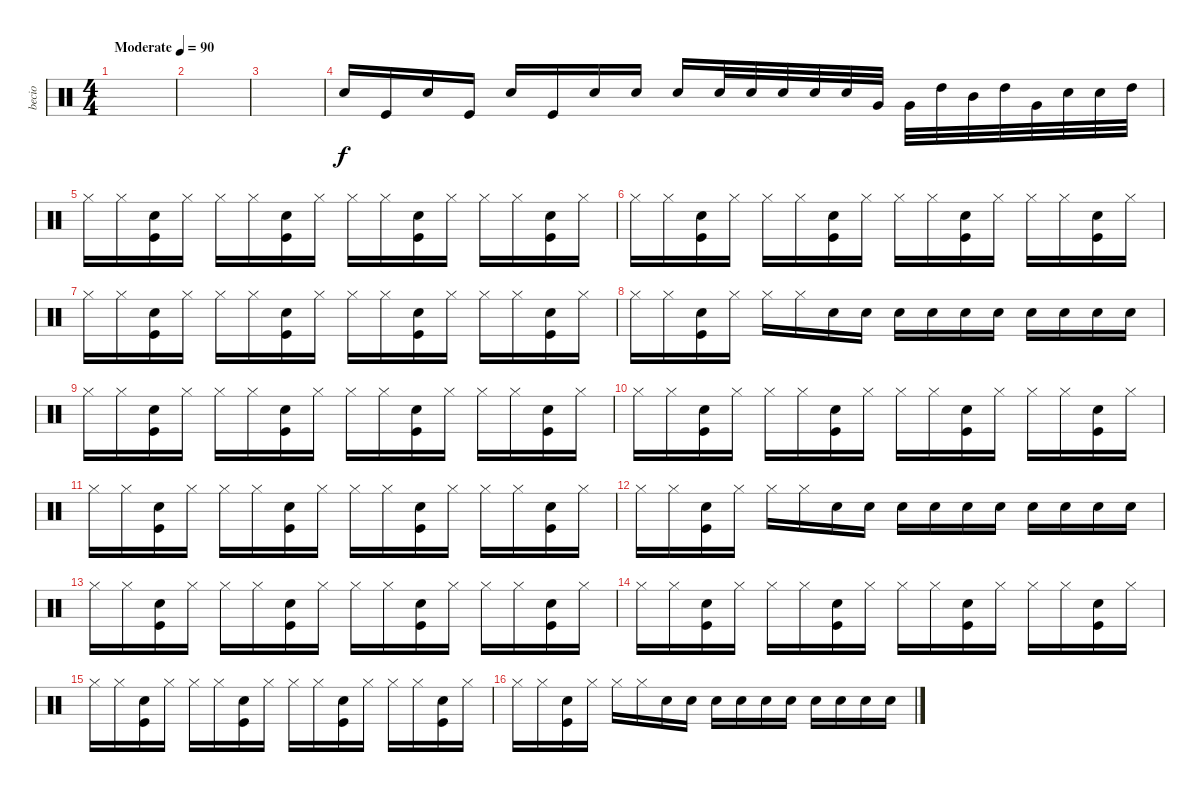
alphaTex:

\track ("becio" "becio") {instrument percussion}
\staff {score}
\articulation defaults
\ts (4 4)
\tempo (90 "Moderate")
\clef neutral
\ks c
|
|
|
"Electric Snare (hit)".16 "Kick (hit)".16 "Electric Snare (hit)".16 "Kick (hit)".16 "Electric Snare (hit)".16 "Kick (hit)".16 "Electric Snare (hit)".16 "Electric Snare (hit)".16 "Electric Snare (hit)".16 "Electric Snare (hit)".32 "Electric Snare (hit)".32 "Electric Snare (hit)".32 "Electric Snare (hit)".32 "Electric Snare (hit)".32 "Very Low Tom (hit)".32 "Very Low Tom (hit)".32 "High Tom (hit)".32 "Mid Tom (hit)".32 "High Tom (hit)".32 "Very Low Tom (hit)".32 "Electric Snare (hit)".32 "Electric Snare (hit)".32 "High Tom (hit)".32 |
"Hi-Hat (closed)".16 "Hi-Hat (closed)".16 ("Electric Snare (hit)" "Kick (hit)").16 "Hi-Hat (closed)".16 "Hi-Hat (closed)".16 "Hi-Hat (closed)".16 ("Electric Snare (hit)" "Kick (hit)").16 "Hi-Hat (closed)".16 "Hi-Hat (closed)".16 "Hi-Hat (closed)".16 ("Electric Snare (hit)" "Kick (hit)").16 "Hi-Hat (closed)".16 "Hi-Hat (closed)".16 "Hi-Hat (closed)".16 ("Electric Snare (hit)" "Kick (hit)").16 "Hi-Hat (closed)".16 |
"Hi-Hat (closed)".16 "Hi-Hat (closed)".16 ("Electric Snare (hit)" "Kick (hit)").16 "Hi-Hat (closed)".16 "Hi-Hat (closed)".16 "Hi-Hat (closed)".16 ("Electric Snare (hit)" "Kick (hit)").16 "Hi-Hat (closed)".16 "Hi-Hat (closed)".16 "Hi-Hat (closed)".16 ("Electric Snare (hit)" "Kick (hit)").16 "Hi-Hat (closed)".16 "Hi-Hat (closed)".16 "Hi-Hat (closed)".16 ("Electric Snare (hit)" "Kick (hit)").16 "Hi-Hat (closed)".16 |
"Hi-Hat (closed)".16 "Hi-Hat (closed)".16 ("Electric Snare (hit)" "Kick (hit)").16 "Hi-Hat (closed)".16 "Hi-Hat (closed)".16 "Hi-Hat (closed)".16 ("Electric Snare (hit)" "Kick (hit)").16 "Hi-Hat (closed)".16 "Hi-Hat (closed)".16 "Hi-Hat (closed)".16 ("Electric Snare (hit)" "Kick (hit)").16 "Hi-Hat (closed)".16 "Hi-Hat (closed)".16 "Hi-Hat (closed)".16 ("Electric Snare (hit)" "Kick (hit)").16 "Hi-Hat (closed)".16 |
"Hi-Hat (closed)".16 "Hi-Hat (closed)".16 ("Electric Snare (hit)" "Kick (hit)").16 "Hi-Hat (closed)".16 "Hi-Hat (closed)".16 "Hi-Hat (closed)".16 "Electric Snare (hit)".16 "Electric Snare (hit)".16 "Electric Snare (hit)".16 "Electric Snare (hit)".16 "Electric Snare (hit)".16 "Electric Snare (hit)".16 "Electric Snare (hit)".16 "Electric Snare (hit)".16 "Electric Snare (hit)".16 "Electric Snare (hit)".16 |
"Hi-Hat (closed)".16 "Hi-Hat (closed)".16 ("Electric Snare (hit)" "Kick (hit)").16 "Hi-Hat (closed)".16 "Hi-Hat (closed)".16 "Hi-Hat (closed)".16 ("Electric Snare (hit)" "Kick (hit)").16 "Hi-Hat (closed)".16 "Hi-Hat (closed)".16 "Hi-Hat (closed)".16 ("Electric Snare (hit)" "Kick (hit)").16 "Hi-Hat (closed)".16 "Hi-Hat (closed)".16 "Hi-Hat (closed)".16 ("Electric Snare (hit)" "Kick (hit)").16 "Hi-Hat (closed)".16 |
"Hi-Hat (closed)".16 "Hi-Hat (closed)".16 ("Electric Snare (hit)" "Kick (hit)").16 "Hi-Hat (closed)".16 "Hi-Hat (closed)".16 "Hi-Hat (closed)".16 ("Electric Snare (hit)" "Kick (hit)").16 "Hi-Hat (closed)".16 "Hi-Hat (closed)".16 "Hi-Hat (closed)".16 ("Electric Snare (hit)" "Kick (hit)").16 "Hi-Hat (closed)".16 "Hi-Hat (closed)".16 "Hi-Hat (closed)".16 ("Electric Snare (hit)" "Kick (hit)").16 "Hi-Hat (closed)".16 |
"Hi-Hat (closed)".16 "Hi-Hat (closed)".16 ("Electric Snare (hit)" "Kick (hit)").16 "Hi-Hat (closed)".16 "Hi-Hat (closed)".16 "Hi-Hat (closed)".16 ("Electric Snare (hit)" "Kick (hit)").16 "Hi-Hat (closed)".16 "Hi-Hat (closed)".16 "Hi-Hat (closed)".16 ("Electric Snare (hit)" "Kick (hit)").16 "Hi-Hat (closed)".16 "Hi-Hat (closed)".16 "Hi-Hat (closed)".16 ("Electric Snare (hit)" "Kick (hit)").16 "Hi-Hat (closed)".16 |
"Hi-Hat (closed)".16 "Hi-Hat (closed)".16 ("Electric Snare (hit)" "Kick (hit)").16 "Hi-Hat (closed)".16 "Hi-Hat (closed)".16 "Hi-Hat (closed)".16 "Electric Snare (hit)".16 "Electric Snare (hit)".16 "Electric Snare (hit)".16 "Electric Snare (hit)".16 "Electric Snare (hit)".16 "Electric Snare (hit)".16 "Electric Snare (hit)".16 "Electric Snare (hit)".16 "Electric Snare (hit)".16 "Electric Snare (hit)".16 |
"Hi-Hat (closed)".16 "Hi-Hat (closed)".16 ("Electric Snare (hit)" "Kick (hit)").16 "Hi-Hat (closed)".16 "Hi-Hat (closed)".16 "Hi-Hat (closed)".16 ("Electric Snare (hit)" "Kick (hit)").16 "Hi-Hat (closed)".16 "Hi-Hat (closed)".16 "Hi-Hat (closed)".16 ("Electric Snare (hit)" "Kick (hit)").16 "Hi-Hat (closed)".16 "Hi-Hat (closed)".16 "Hi-Hat (closed)".16 ("Electric Snare (hit)" "Kick (hit)").16 "Hi-Hat (closed)".16 |
"Hi-Hat (closed)".16 "Hi-Hat (closed)".16 ("Electric Snare (hit)" "Kick (hit)").16 "Hi-Hat (closed)".16 "Hi-Hat (closed)".16 "Hi-Hat (closed)".16 ("Electric Snare (hit)" "Kick (hit)").16 "Hi-Hat (closed)".16 "Hi-Hat (closed)".16 "Hi-Hat (closed)".16 ("Electric Snare (hit)" "Kick (hit)").16 "Hi-Hat (closed)".16 "Hi-Hat (closed)".16 "Hi-Hat (closed)".16 ("Electric Snare (hit)" "Kick (hit)").16 "Hi-Hat (closed)".16 |
"Hi-Hat (closed)".16 "Hi-Hat (closed)".16 ("Electric Snare (hit)" "Kick (hit)").16 "Hi-Hat (closed)".16 "Hi-Hat (closed)".16 "Hi-Hat (closed)".16 ("Electric Snare (hit)" "Kick (hit)").16 "Hi-Hat (closed)".16 "Hi-Hat (closed)".16 "Hi-Hat (closed)".16 ("Electric Snare (hit)" "Kick (hit)").16 "Hi-Hat (closed)".16 "Hi-Hat (closed)".16 "Hi-Hat (closed)".16 ("Electric Snare (hit)" "Kick (hit)").16 "Hi-Hat (closed)".16 |
"Hi-Hat (closed)".16 "Hi-Hat (closed)".16 ("Electric Snare (hit)" "Kick (hit)").16 "Hi-Hat (closed)".16 "Hi-Hat (closed)".16 "Hi-Hat (closed)".16 "Electric Snare (hit)".16 "Electric Snare (hit)".16 "Electric Snare (hit)".16 "Electric Snare (hit)".16 "Electric Snare (hit)".16 "Electric Snare (hit)".16 "Electric Snare (hit)".16 "Electric Snare (hit)".16 "Electric Snare (hit)".16 "Electric Snare (hit)".16
